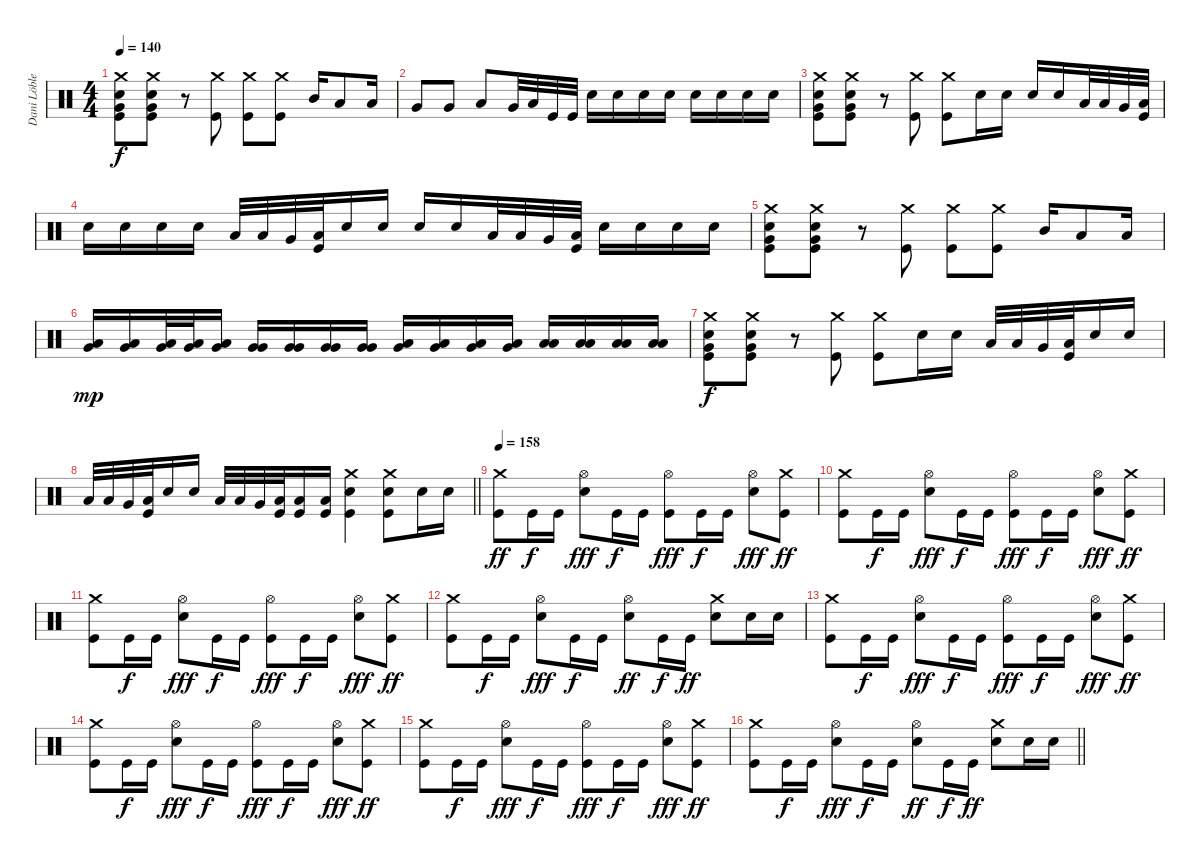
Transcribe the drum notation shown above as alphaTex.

\track ("Dani Löble" "Dani Löble") {instrument percussion}
\staff {score}
\articulation defaults
\ts (4 4)
\section ("" "")
\tempo 140
\clef neutral
\ks c
("Crash medium (hit)" "Electric Snare (hit)" "Very Low Tom (hit)" "Kick (hit)").8{dy f} ("Crash medium (hit)" "Electric Snare (hit)" "Very Low Tom (hit)" "Kick (hit)").8 r.8 ("Crash medium (hit)" "Kick (hit)").8 ("Crash medium (hit)" "Kick (hit)").8 ("Crash medium (hit)" "Kick (hit)").8 "Mid Tom (hit)".16 "Low Tom (hit)".8 "Low Tom (hit)".16 |
"Very Low Tom (hit)".8 "Very Low Tom (hit)".8 "Low Floor Tom (hit)".8 "Very Low Tom (hit)".32 "Low Floor Tom (hit)".32 "Kick (hit)".32 "Kick (hit)".32 "Electric Snare (hit)".16 "Electric Snare (hit)".16 "Electric Snare (hit)".16 "Electric Snare (hit)".16 "Electric Snare (hit)".16 "Electric Snare (hit)".16 "Electric Snare (hit)".16 "Electric Snare (hit)".16 |
("Crash medium (hit)" "Electric Snare (hit)" "Very Low Tom (hit)" "Kick (hit)").8 ("Crash medium (hit)" "Electric Snare (hit)" "Very Low Tom (hit)" "Kick (hit)").8 r.8 ("Crash medium (hit)" "Kick (hit)").8 ("Crash medium (hit)" "Kick (hit)").8 "Electric Snare (hit)".16 "Electric Snare (hit)".16 "Electric Snare (hit)".16 "Electric Snare (hit)".16 "Low Tom (hit)".32 "Low Tom (hit)".32 "Very Low Tom (hit)".32 ("Low Floor Tom (hit)" "Kick (hit)").32 |
"Electric Snare (hit)".16 "Electric Snare (hit)".16 "Electric Snare (hit)".16 "Electric Snare (hit)".16 "Low Tom (hit)".32 "Low Tom (hit)".32 "Very Low Tom (hit)".32 ("Low Floor Tom (hit)" "Kick (hit)").32 "Electric Snare (hit)".16 "Electric Snare (hit)".16 "Electric Snare (hit)".16 "Electric Snare (hit)".16 "Low Tom (hit)".32 "Low Tom (hit)".32 "Very Low Tom (hit)".32 ("Low Floor Tom (hit)" "Kick (hit)").32 "Electric Snare (hit)".16 "Electric Snare (hit)".16 "Electric Snare (hit)".16 "Electric Snare (hit)".16 |
("Crash medium (hit)" "Electric Snare (hit)" "Very Low Tom (hit)" "Kick (hit)").8 ("Crash medium (hit)" "Electric Snare (hit)" "Very Low Tom (hit)" "Kick (hit)").8 r.8 ("Crash medium (hit)" "Kick (hit)").8 ("Crash medium (hit)" "Kick (hit)").8 ("Crash medium (hit)" "Kick (hit)").8 "Mid Tom (hit)".16 "Low Tom (hit)".8 "Low Tom (hit)".16 |
("Low Tom (hit)" "Very Low Tom (hit)").16{dy mp} ("Low Tom (hit)" "Very Low Tom (hit)").16 ("Low Tom (hit)" "Very Low Tom (hit)").32 ("Low Tom (hit)" "Very Low Tom (hit)").32 ("Low Tom (hit)" "Very Low Tom (hit)").16 ("Very Low Tom (hit)" "Very Low Tom (hit)").16 ("Very Low Tom (hit)" "Very Low Tom (hit)").16 ("Very Low Tom (hit)" "Very Low Tom (hit)").16 ("Very Low Tom (hit)" "Very Low Tom (hit)").16 ("Very Low Tom (hit)" "Low Floor Tom (hit)").16 ("Very Low Tom (hit)" "Low Floor Tom (hit)").16 ("Very Low Tom (hit)" "Low Floor Tom (hit)").16 ("Very Low Tom (hit)" "Low Floor Tom (hit)").16 ("Low Floor Tom (hit)" "Low Floor Tom (hit)").16 ("Low Floor Tom (hit)" "Low Floor Tom (hit)").16 ("Low Floor Tom (hit)" "Low Floor Tom (hit)").16 ("Low Floor Tom (hit)" "Low Floor Tom (hit)").16 |
("Crash medium (hit)" "Electric Snare (hit)" "Very Low Tom (hit)" "Kick (hit)").8{dy f} ("Crash medium (hit)" "Electric Snare (hit)" "Very Low Tom (hit)" "Kick (hit)").8 r.8 ("Crash medium (hit)" "Kick (hit)").8 ("Crash medium (hit)" "Kick (hit)").8 "Electric Snare (hit)".16 "Electric Snare (hit)".16 "Low Tom (hit)".32 "Low Tom (hit)".32 "Very Low Tom (hit)".32 ("Low Floor Tom (hit)" "Kick (hit)").32 "Electric Snare (hit)".16 "Electric Snare (hit)".16 |
\barLineRight lightlight "Low Tom (hit)".32 "Low Tom (hit)".32 "Very Low Tom (hit)".32
("Low Floor Tom (hit)" "Kick (hit)").32 "Electric Snare (hit)".16 "Electric Snare (hit)".16 "Low Tom (hit)".32 "Low Tom (hit)".32 "Very Low Tom (hit)".32 ("Low Floor Tom (hit)" "Kick (hit)").32 ("Low Floor Tom (hit)" "Kick (hit)").16 ("Low Floor Tom (hit)" "Kick (hit)").16 ("Crash medium (hit)" "Electric Snare (hit)" "Kick (hit)").4 ("Crash medium (hit)" "Electric Snare (hit)" "Kick (hit)").8 "Electric Snare (hit)".16 "Electric Snare (hit)".16 |
\section ("" "")
\tempo 158
("Crash medium (hit)" "Kick (hit)").8{dy ff} "Kick (hit)".16{dy f} "Kick (hit)".16 ("Hi-Hat (open)" "Electric Snare (hit)").8{dy fff} "Kick (hit)".16{dy f} "Kick (hit)".16 ("Hi-Hat (open)" "Kick (hit)").8{dy fff} "Kick (hit)".16{dy f} "Kick (hit)".16 ("Hi-Hat (open)" "Electric Snare (hit)").8{dy fff} ("Crash medium (hit)" "Kick (hit)").8{dy ff} |
("Crash medium (hit)" "Kick (hit)").8 "Kick (hit)".16{dy f} "Kick (hit)".16 ("Hi-Hat (open)" "Electric Snare (hit)").8{dy fff} "Kick (hit)".16{dy f} "Kick (hit)".16 ("Hi-Hat (open)" "Kick (hit)").8{dy fff} "Kick (hit)".16{dy f} "Kick (hit)".16 ("Hi-Hat (open)" "Electric Snare (hit)").8{dy fff} ("Crash medium (hit)" "Kick (hit)").8{dy ff} |
("Crash medium (hit)" "Kick (hit)").8 "Kick (hit)".16{dy f} "Kick (hit)".16 ("Hi-Hat (open)" "Electric Snare (hit)").8{dy fff} "Kick (hit)".16{dy f} "Kick (hit)".16 ("Hi-Hat (open)" "Kick (hit)").8{dy fff} "Kick (hit)".16{dy f} "Kick (hit)".16 ("Hi-Hat (open)" "Electric Snare (hit)").8{dy fff} ("Crash medium (hit)" "Kick (hit)").8{dy ff} |
("Crash medium (hit)" "Kick (hit)").8 "Kick (hit)".16{dy f} "Kick (hit)".16 ("Hi-Hat (open)" "Electric Snare (hit)").8{dy fff} "Kick (hit)".16{dy f} "Kick (hit)".16 ("Hi-Hat (open)" "Electric Snare (hit)").8{dy ff} "Kick (hit)".16{dy f} "Kick (hit)".16{dy ff} ("Crash medium (hit)" "Electric Snare (hit)").8 "Electric Snare (hit)".16 "Electric Snare (hit)".16 |
("Crash medium (hit)" "Kick (hit)").8 "Kick (hit)".16{dy f} "Kick (hit)".16 ("Hi-Hat (open)" "Electric Snare (hit)").8{dy fff} "Kick (hit)".16{dy f} "Kick (hit)".16 ("Hi-Hat (open)" "Kick (hit)").8{dy fff} "Kick (hit)".16{dy f} "Kick (hit)".16 ("Hi-Hat (open)" "Electric Snare (hit)").8{dy fff} ("Crash medium (hit)" "Kick (hit)").8{dy ff} |
("Crash medium (hit)" "Kick (hit)").8 "Kick (hit)".16{dy f} "Kick (hit)".16 ("Hi-Hat (open)" "Electric Snare (hit)").8{dy fff} "Kick (hit)".16{dy f} "Kick (hit)".16 ("Hi-Hat (open)" "Kick (hit)").8{dy fff} "Kick (hit)".16{dy f} "Kick (hit)".16 ("Hi-Hat (open)" "Electric Snare (hit)").8{dy fff} ("Crash medium (hit)" "Kick (hit)").8{dy ff} |
("Crash medium (hit)" "Kick (hit)").8 "Kick (hit)".16{dy f} "Kick (hit)".16 ("Hi-Hat (open)" "Electric Snare (hit)").8{dy fff} "Kick (hit)".16{dy f} "Kick (hit)".16 ("Hi-Hat (open)" "Kick (hit)").8{dy fff} "Kick (hit)".16{dy f} "Kick (hit)".16 ("Hi-Hat (open)" "Electric Snare (hit)").8{dy fff} ("Crash medium (hit)" "Kick (hit)").8{dy ff} |
\barLineRight lightlight
("Crash medium (hit)" "Kick (hit)").8 "Kick (hit)".16{dy f} "Kick (hit)".16 ("Hi-Hat (open)" "Electric Snare (hit)").8{dy fff} "Kick (hit)".16{dy f} "Kick (hit)".16 ("Hi-Hat (open)" "Electric Snare (hit)").8{dy ff} "Kick (hit)".16{dy f} "Kick (hit)".16{dy ff} ("Crash medium (hit)" "Electric Snare (hit)").8 "Electric Snare (hit)".16 "Electric Snare (hit)".16
